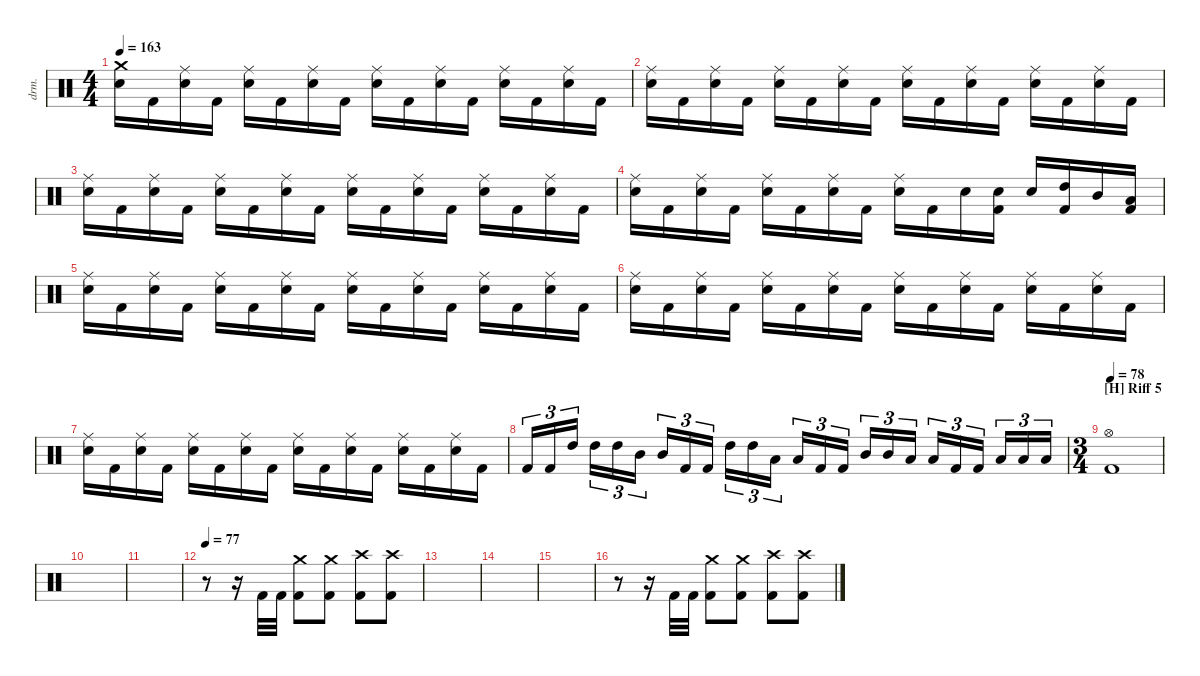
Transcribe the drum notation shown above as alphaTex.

\hideDynamics
\bracketExtendMode nobrackets
\track ("Drums" "drm.") {instrument percussion}
\staff {score}
\articulation defaults
\ts (4 4)
\tempo 163
\clef neutral
\ks c
("Snare (hit) 2" "Crash medium (hit)").16{dy mf beam Down} "Kick (hit) 2".16{beam Down} ("Snare (hit) 2" "Ride (middle)").16{beam Down} "Kick (hit) 2".16{beam Down} ("Snare (hit) 2" "Ride (middle)").16{beam Down} "Kick (hit) 2".16{beam Down} ("Snare (hit) 2" "Ride (middle)").16{beam Down} "Kick (hit) 2".16{beam Down} ("Snare (hit) 2" "Ride (middle)").16{beam Down} "Kick (hit) 2".16{beam Down} ("Snare (hit) 2" "Ride (middle)").16{beam Down} "Kick (hit) 2".16{beam Down} ("Snare (hit) 2" "Ride (middle)").16{beam Down} "Kick (hit) 2".16{beam Down} ("Snare (hit) 2" "Ride (middle)").16{beam Down} "Kick (hit) 2".16{beam Down} |
("Snare (hit) 2" "Ride (middle)").16{beam Down} "Kick (hit) 2".16{beam Down} ("Snare (hit) 2" "Ride (middle)").16{beam Down} "Kick (hit) 2".16{beam Down} ("Snare (hit) 2" "Ride (middle)").16{beam Down} "Kick (hit) 2".16{beam Down} ("Snare (hit) 2" "Ride (middle)").16{beam Down} "Kick (hit) 2".16{beam Down} ("Snare (hit) 2" "Ride (middle)").16{beam Down} "Kick (hit) 2".16{beam Down} ("Snare (hit) 2" "Ride (middle)").16{beam Down} "Kick (hit) 2".16{beam Down} ("Snare (hit) 2" "Ride (middle)").16{beam Down} "Kick (hit) 2".16{beam Down} ("Snare (hit) 2" "Ride (middle)").16{beam Down} "Kick (hit) 2".16{beam Down} |
("Snare (hit) 2" "Ride (middle)").16{beam Down} "Kick (hit) 2".16{beam Down} ("Snare (hit) 2" "Ride (middle)").16{beam Down} "Kick (hit) 2".16{beam Down} ("Snare (hit) 2" "Ride (middle)").16{beam Down} "Kick (hit) 2".16{beam Down} ("Snare (hit) 2" "Ride (middle)").16{beam Down} "Kick (hit) 2".16{beam Down} ("Snare (hit) 2" "Ride (middle)").16{beam Down} "Kick (hit) 2".16{beam Down} ("Snare (hit) 2" "Ride (middle)").16{beam Down} "Kick (hit) 2".16{beam Down} ("Snare (hit) 2" "Ride (middle)").16{beam Down} "Kick (hit) 2".16{beam Down} ("Snare (hit) 2" "Ride (middle)").16{beam Down} "Kick (hit) 2".16{beam Down} |
("Snare (hit) 2" "Ride (middle)").16{beam Down} "Kick (hit) 2".16{beam Down} ("Snare (hit) 2" "Ride (middle)").16{beam Down} "Kick (hit) 2".16{beam Down} ("Snare (hit) 2" "Ride (middle)").16{beam Down} "Kick (hit) 2".16{beam Down} ("Snare (hit) 2" "Ride (middle)").16{beam Down} "Kick (hit) 2".16{beam Down} ("Snare (hit) 2" "Ride (middle)").16{beam Down} "Kick (hit) 2".16{beam Down} "Snare (hit) 2".16{beam Down} ("Kick (hit) 2" "Snare (hit) 2").16{beam Down} "Snare (hit) 2".16{beam Up} ("Kick (hit) 2" "High Tom (hit)").16{beam Up} "Mid Tom (hit)".16{beam Up} ("Kick (hit) 2" "Low Tom (hit)").16{beam Up} |
("Snare (hit) 2" "Ride (middle)").16{beam Down} "Kick (hit) 2".16{beam Down} ("Snare (hit) 2" "Ride (middle)").16{beam Down} "Kick (hit) 2".16{beam Down} ("Snare (hit) 2" "Ride (middle)").16{beam Down} "Kick (hit) 2".16{beam Down} ("Snare (hit) 2" "Ride (middle)").16{beam Down} "Kick (hit) 2".16{beam Down} ("Snare (hit) 2" "Ride (middle)").16{beam Down} "Kick (hit) 2".16{beam Down} ("Snare (hit) 2" "Ride (middle)").16{beam Down} "Kick (hit) 2".16{beam Down} ("Snare (hit) 2" "Ride (middle)").16{beam Down} "Kick (hit) 2".16{beam Down} ("Snare (hit) 2" "Ride (middle)").16{beam Down} "Kick (hit) 2".16{beam Down} |
("Snare (hit) 2" "Ride (middle)").16{beam Down} "Kick (hit) 2".16{beam Down} ("Snare (hit) 2" "Ride (middle)").16{beam Down} "Kick (hit) 2".16{beam Down} ("Snare (hit) 2" "Ride (middle)").16{beam Down} "Kick (hit) 2".16{beam Down} ("Snare (hit) 2" "Ride (middle)").16{beam Down} "Kick (hit) 2".16{beam Down} ("Snare (hit) 2" "Ride (middle)").16{beam Down} "Kick (hit) 2".16{beam Down} ("Snare (hit) 2" "Ride (middle)").16{beam Down} "Kick (hit) 2".16{beam Down} ("Snare (hit) 2" "Ride (middle)").16{beam Down} "Kick (hit) 2".16{beam Down} ("Snare (hit) 2" "Ride (middle)").16{beam Down} "Kick (hit) 2".16{beam Down} |
("Snare (hit) 2" "Ride (middle)").16{beam Down} "Kick (hit) 2".16{beam Down} ("Snare (hit) 2" "Ride (middle)").16{beam Down} "Kick (hit) 2".16{beam Down} ("Snare (hit) 2" "Ride (middle)").16{beam Down} "Kick (hit) 2".16{beam Down} ("Snare (hit) 2" "Ride (middle)").16{beam Down} "Kick (hit) 2".16{beam Down} ("Snare (hit) 2" "Ride (middle)").16{beam Down} "Kick (hit) 2".16{beam Down} ("Snare (hit) 2" "Ride (middle)").16{beam Down} "Kick (hit) 2".16{beam Down} ("Snare (hit) 2" "Ride (middle)").16{beam Down} "Kick (hit) 2".16{beam Down} ("Snare (hit) 2" "Ride (middle)").16{beam Down} "Kick (hit) 2".16{beam Down} |
"Kick (hit) 2".16{tu (3 2) beam Up} "Kick (hit) 2".16{tu (3 2) beam Up} "High Tom (hit)".16{tu (3 2) beam Up} "High Tom (hit)".16{tu (3 2) beam Down} "High Tom (hit)".16{tu (3 2) beam Down} "Mid Tom (hit)".16{tu (3 2) beam Down} "Mid Tom (hit)".16{tu (3 2) beam Up} "Kick (hit) 2".16{tu (3 2) beam Up} "Kick (hit) 2".16{tu (3 2) beam Up} "High Tom (hit)".16{tu (3 2) beam Down} "High Tom (hit)".16{tu (3 2) beam Down} "Low Tom (hit)".16{tu (3 2) beam Down} "Low Tom (hit)".16{tu (3 2) beam Up} "Kick (hit) 2".16{tu (3 2) beam Up} "Kick (hit) 2".16{tu (3 2) beam Up} "Mid Tom (hit)".16{tu (3 2) beam Up} "Mid Tom (hit)".16{tu (3 2) beam Up} "Low Tom (hit)".16{tu (3 2) beam Up} "Low Tom (hit)".16{tu (3 2) beam Up} "Kick (hit) 2".16{tu (3 2) beam Up} "Kick (hit) 2".16{tu (3 2) beam Up} "Low Tom (hit)".16{tu (3 2) beam Up} "Low Tom (hit)".16{tu (3 2) beam Up} "Low Tom (hit)".16{tu (3 2) beam Up} |
\ts (3 4)
\beaming (8 2 2 2)
\section ("H" "Riff 5")
\tempo 78
("Kick (hit) 2" "Hi-Hat (open)").1{beam Down} |
|
|
\tempo 77
r.8{beam Down} r.16{beam Down} "Kick (hit) 2".32{beam Up} "Kick (hit) 2".32{beam Up} ("Kick (hit) 2" "Crash medium (hit)").8{beam Down} ("Kick (hit) 2" "Crash medium (hit)").8{beam Down} ("Kick (hit) 2" "Crash high (hit)").8{beam Down} ("Kick (hit) 2" "Crash high (hit)").8{beam Down} |
|
|
|
r.8{beam Down} r.16{beam Down} "Kick (hit) 2".32{beam Up} "Kick (hit) 2".32{beam Up} ("Kick (hit) 2" "Crash medium (hit)").8{beam Down} ("Kick (hit) 2" "Crash medium (hit)").8{beam Down} ("Kick (hit) 2" "Crash high (hit)").8{beam Down} ("Kick (hit) 2" "Crash high (hit)").8{beam Down}
